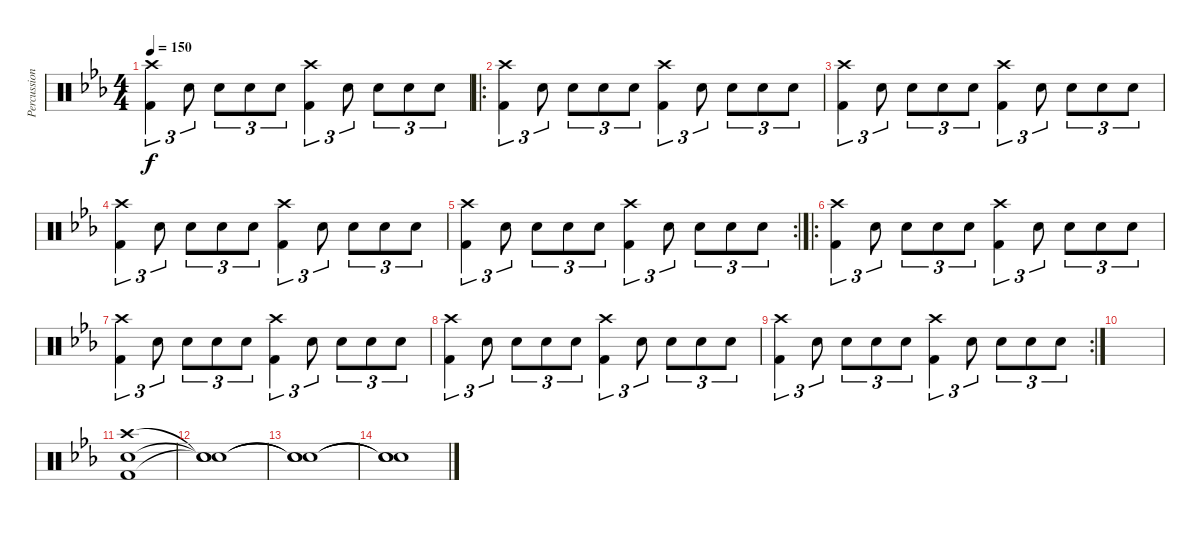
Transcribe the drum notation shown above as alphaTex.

\track ("Percussion" "Percussion") {instrument percussion}
\staff {score}
\articulation defaults
\ts (4 4)
\tempo 150
\clef neutral
\ks cminor
("Crash high (hit)" "Kick (hit) 2").4{tu (3 2) dy f} "Snare (hit) 2".8{tu (3 2)} "Snare (hit) 2".8{tu (3 2)} "Snare (hit) 2".8{tu (3 2)} "Snare (hit) 2".8{tu (3 2)} ("Crash high (hit)" "Kick (hit) 2").4{tu (3 2)} "Snare (hit) 2".8{tu (3 2)} "Snare (hit) 2".8{tu (3 2)} "Snare (hit) 2".8{tu (3 2)} "Snare (hit) 2".8{tu (3 2)} |
\ro
("Crash high (hit)" "Kick (hit) 2").4{tu (3 2)} "Snare (hit) 2".8{tu (3 2)} "Snare (hit) 2".8{tu (3 2)} "Snare (hit) 2".8{tu (3 2)} "Snare (hit) 2".8{tu (3 2)} ("Crash high (hit)" "Kick (hit) 2").4{tu (3 2)} "Snare (hit) 2".8{tu (3 2)} "Snare (hit) 2".8{tu (3 2)} "Snare (hit) 2".8{tu (3 2)} "Snare (hit) 2".8{tu (3 2)} |
("Crash high (hit)" "Kick (hit) 2").4{tu (3 2)} "Snare (hit) 2".8{tu (3 2)} "Snare (hit) 2".8{tu (3 2)} "Snare (hit) 2".8{tu (3 2)} "Snare (hit) 2".8{tu (3 2)} ("Crash high (hit)" "Kick (hit) 2").4{tu (3 2)} "Snare (hit) 2".8{tu (3 2)} "Snare (hit) 2".8{tu (3 2)} "Snare (hit) 2".8{tu (3 2)} "Snare (hit) 2".8{tu (3 2)} |
("Crash high (hit)" "Kick (hit) 2").4{tu (3 2)} "Snare (hit) 2".8{tu (3 2)} "Snare (hit) 2".8{tu (3 2)} "Snare (hit) 2".8{tu (3 2)} "Snare (hit) 2".8{tu (3 2)} ("Crash high (hit)" "Kick (hit) 2").4{tu (3 2)} "Snare (hit) 2".8{tu (3 2)} "Snare (hit) 2".8{tu (3 2)} "Snare (hit) 2".8{tu (3 2)} "Snare (hit) 2".8{tu (3 2)} |
\rc 2
("Crash high (hit)" "Kick (hit) 2").4{tu (3 2)} "Snare (hit) 2".8{tu (3 2)} "Snare (hit) 2".8{tu (3 2)} "Snare (hit) 2".8{tu (3 2)} "Snare (hit) 2".8{tu (3 2)} ("Crash high (hit)" "Kick (hit) 2").4{tu (3 2)} "Snare (hit) 2".8{tu (3 2)} "Snare (hit) 2".8{tu (3 2)} "Snare (hit) 2".8{tu (3 2)} "Snare (hit) 2".8{tu (3 2)} |
\ro
("Crash high (hit)" "Kick (hit) 2").4{tu (3 2)} "Snare (hit) 2".8{tu (3 2)} "Snare (hit) 2".8{tu (3 2)} "Snare (hit) 2".8{tu (3 2)} "Snare (hit) 2".8{tu (3 2)} ("Crash high (hit)" "Kick (hit) 2").4{tu (3 2)} "Snare (hit) 2".8{tu (3 2)} "Snare (hit) 2".8{tu (3 2)} "Snare (hit) 2".8{tu (3 2)} "Snare (hit) 2".8{tu (3 2)} |
("Crash high (hit)" "Kick (hit) 2").4{tu (3 2)} "Snare (hit) 2".8{tu (3 2)} "Snare (hit) 2".8{tu (3 2)} "Snare (hit) 2".8{tu (3 2)} "Snare (hit) 2".8{tu (3 2)} ("Crash high (hit)" "Kick (hit) 2").4{tu (3 2)} "Snare (hit) 2".8{tu (3 2)} "Snare (hit) 2".8{tu (3 2)} "Snare (hit) 2".8{tu (3 2)} "Snare (hit) 2".8{tu (3 2)} |
("Crash high (hit)" "Kick (hit) 2").4{tu (3 2)} "Snare (hit) 2".8{tu (3 2)} "Snare (hit) 2".8{tu (3 2)} "Snare (hit) 2".8{tu (3 2)} "Snare (hit) 2".8{tu (3 2)} ("Crash high (hit)" "Kick (hit) 2").4{tu (3 2)} "Snare (hit) 2".8{tu (3 2)} "Snare (hit) 2".8{tu (3 2)} "Snare (hit) 2".8{tu (3 2)} "Snare (hit) 2".8{tu (3 2)} |
\rc 2
("Crash high (hit)" "Kick (hit) 2").4{tu (3 2)} "Snare (hit) 2".8{tu (3 2)} "Snare (hit) 2".8{tu (3 2)} "Snare (hit) 2".8{tu (3 2)} "Snare (hit) 2".8{tu (3 2)} ("Crash high (hit)" "Kick (hit) 2").4{tu (3 2)} "Snare (hit) 2".8{tu (3 2)} "Snare (hit) 2".8{tu (3 2)} "Snare (hit) 2".8{tu (3 2)} "Snare (hit) 2".8{tu (3 2)} |
|
("Crash high (hit)" "Snare (hit) 2" "Kick (hit) 2").1 |
("Snare (hit)"{t} "Snare (hit)"{t} "Snare (hit)"{t}).1{volume 5} |
("Snare (hit)"{t} "Snare (hit)"{t} "Snare (hit)"{t}).1 |
("Snare (hit)"{t} "Snare (hit)"{t} "Snare (hit)"{t}).1
